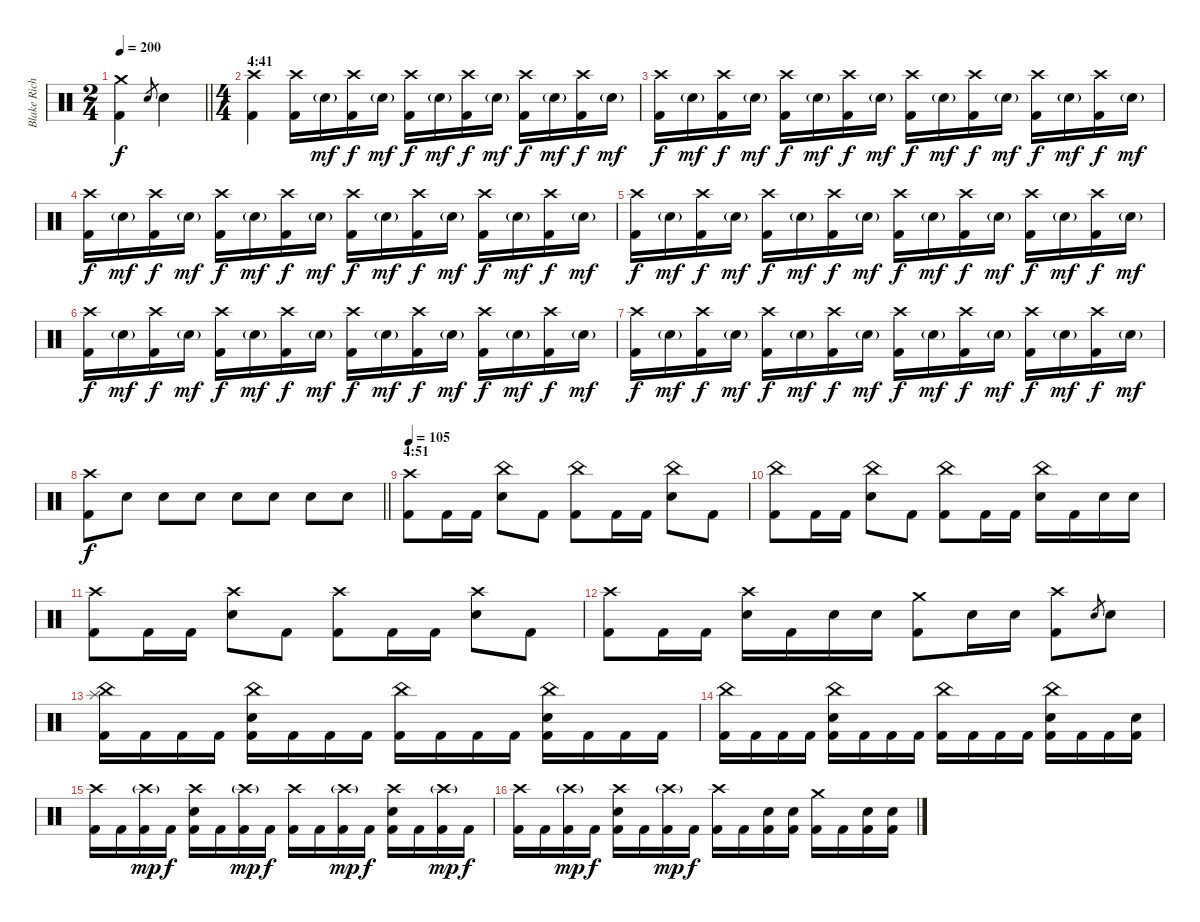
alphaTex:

\track ("Blake Richardson" "Blake Rich") {instrument percussion}
\staff {score}
\articulation defaults
\ts (2 4)
\tempo 200
\clef neutral
\barLineRight lightlight
\ks c
("Crash medium (hit)" "Kick (hit) 2").4{dy f} "Electric Snare (hit)".8{gr} "Electric Snare (hit)".4 |
\ts (4 4)
\section ("" "4:41")
("Crash high (hit)" "Kick (hit) 2").4 ("Crash high (hit)" "Kick (hit) 2").16 "Electric Snare (hit)"{g}.16{dy mf} ("Crash high (hit)" "Kick (hit) 2").16{dy f} "Electric Snare (hit)"{g}.16{dy mf} ("Crash high (hit)" "Kick (hit) 2").16{dy f} "Electric Snare (hit)"{g}.16{dy mf} ("Crash high (hit)" "Kick (hit) 2").16{dy f} "Electric Snare (hit)"{g}.16{dy mf} ("Crash high (hit)" "Kick (hit) 2").16{dy f} "Electric Snare (hit)"{g}.16{dy mf} ("Crash high (hit)" "Kick (hit) 2").16{dy f} "Electric Snare (hit)"{g}.16{dy mf} |
("Crash high (hit)" "Kick (hit) 2").16{dy f} "Electric Snare (hit)"{g}.16{dy mf} ("Crash high (hit)" "Kick (hit) 2").16{dy f} "Electric Snare (hit)"{g}.16{dy mf} ("Crash high (hit)" "Kick (hit) 2").16{dy f} "Electric Snare (hit)"{g}.16{dy mf} ("Crash high (hit)" "Kick (hit) 2").16{dy f} "Electric Snare (hit)"{g}.16{dy mf} ("Crash high (hit)" "Kick (hit) 2").16{dy f} "Electric Snare (hit)"{g}.16{dy mf} ("Crash high (hit)" "Kick (hit) 2").16{dy f} "Electric Snare (hit)"{g}.16{dy mf} ("Crash high (hit)" "Kick (hit) 2").16{dy f} "Electric Snare (hit)"{g}.16{dy mf} ("Crash high (hit)" "Kick (hit) 2").16{dy f} "Electric Snare (hit)"{g}.16{dy mf} |
("Crash high (hit)" "Kick (hit) 2").16{dy f} "Electric Snare (hit)"{g}.16{dy mf} ("Crash high (hit)" "Kick (hit) 2").16{dy f} "Electric Snare (hit)"{g}.16{dy mf} ("Crash high (hit)" "Kick (hit) 2").16{dy f} "Electric Snare (hit)"{g}.16{dy mf} ("Crash high (hit)" "Kick (hit) 2").16{dy f} "Electric Snare (hit)"{g}.16{dy mf} ("Crash high (hit)" "Kick (hit) 2").16{dy f} "Electric Snare (hit)"{g}.16{dy mf} ("Crash high (hit)" "Kick (hit) 2").16{dy f} "Electric Snare (hit)"{g}.16{dy mf} ("Crash high (hit)" "Kick (hit) 2").16{dy f} "Electric Snare (hit)"{g}.16{dy mf} ("Crash high (hit)" "Kick (hit) 2").16{dy f} "Electric Snare (hit)"{g}.16{dy mf} |
("Crash high (hit)" "Kick (hit) 2").16{dy f} "Electric Snare (hit)"{g}.16{dy mf} ("Crash high (hit)" "Kick (hit) 2").16{dy f} "Electric Snare (hit)"{g}.16{dy mf} ("Crash high (hit)" "Kick (hit) 2").16{dy f} "Electric Snare (hit)"{g}.16{dy mf} ("Crash high (hit)" "Kick (hit) 2").16{dy f} "Electric Snare (hit)"{g}.16{dy mf} ("Crash high (hit)" "Kick (hit) 2").16{dy f} "Electric Snare (hit)"{g}.16{dy mf} ("Crash high (hit)" "Kick (hit) 2").16{dy f} "Electric Snare (hit)"{g}.16{dy mf} ("Crash high (hit)" "Kick (hit) 2").16{dy f} "Electric Snare (hit)"{g}.16{dy mf} ("Crash high (hit)" "Kick (hit) 2").16{dy f} "Electric Snare (hit)"{g}.16{dy mf} |
("Crash high (hit)" "Kick (hit) 2").16{dy f} "Electric Snare (hit)"{g}.16{dy mf} ("Crash high (hit)" "Kick (hit) 2").16{dy f} "Electric Snare (hit)"{g}.16{dy mf} ("Crash high (hit)" "Kick (hit) 2").16{dy f} "Electric Snare (hit)"{g}.16{dy mf} ("Crash high (hit)" "Kick (hit) 2").16{dy f} "Electric Snare (hit)"{g}.16{dy mf} ("Crash high (hit)" "Kick (hit) 2").16{dy f} "Electric Snare (hit)"{g}.16{dy mf} ("Crash high (hit)" "Kick (hit) 2").16{dy f} "Electric Snare (hit)"{g}.16{dy mf} ("Crash high (hit)" "Kick (hit) 2").16{dy f} "Electric Snare (hit)"{g}.16{dy mf} ("Crash high (hit)" "Kick (hit) 2").16{dy f} "Electric Snare (hit)"{g}.16{dy mf} |
("Crash high (hit)" "Kick (hit) 2").16{dy f} "Electric Snare (hit)"{g}.16{dy mf} ("Crash high (hit)" "Kick (hit) 2").16{dy f} "Electric Snare (hit)"{g}.16{dy mf} ("Crash high (hit)" "Kick (hit) 2").16{dy f} "Electric Snare (hit)"{g}.16{dy mf} ("Crash high (hit)" "Kick (hit) 2").16{dy f} "Electric Snare (hit)"{g}.16{dy mf} ("Crash high (hit)" "Kick (hit) 2").16{dy f} "Electric Snare (hit)"{g}.16{dy mf} ("Crash high (hit)" "Kick (hit) 2").16{dy f} "Electric Snare (hit)"{g}.16{dy mf} ("Crash high (hit)" "Kick (hit) 2").16{dy f} "Electric Snare (hit)"{g}.16{dy mf} ("Crash high (hit)" "Kick (hit) 2").16{dy f} "Electric Snare (hit)"{g}.16{dy mf} |
\barLineRight lightlight
("Crash high (hit)" "Kick (hit) 2").8{dy f} "Electric Snare (hit)".8 "Electric Snare (hit)".8 "Electric Snare (hit)".8 "Electric Snare (hit)".8 "Electric Snare (hit)".8 "Electric Snare (hit)".8 "Electric Snare (hit)".8 |
\section ("" "4:51")
\tempo 105
("Crash high (hit)" "Kick (hit) 2").8 "Kick (hit) 2".16 "Kick (hit) 2".16 ("China (hit)" "Electric Snare (hit)").8 "Kick (hit) 2".8 ("China (hit)" "Kick (hit) 2").8 "Kick (hit) 2".16 "Kick (hit) 2".16 ("China (hit)" "Electric Snare (hit)").8 "Kick (hit) 2".8 |
("China (hit)" "Kick (hit) 2").8 "Kick (hit) 2".16 "Kick (hit) 2".16 ("China (hit)" "Electric Snare (hit)").8 "Kick (hit) 2".8 ("China (hit)" "Kick (hit) 2").8 "Kick (hit) 2".16 "Kick (hit) 2".16 ("China (hit)" "Electric Snare (hit)").16 "Kick (hit) 2".16 "Electric Snare (hit)".16 "Electric Snare (hit)".16 |
("Crash high (hit)" "Kick (hit) 2").8 "Kick (hit) 2".16 "Kick (hit) 2".16 ("Crash high (hit)" "Electric Snare (hit)").8 "Kick (hit) 2".8 ("Crash high (hit)" "Kick (hit) 2").8 "Kick (hit) 2".16 "Kick (hit) 2".16 ("Crash high (hit)" "Electric Snare (hit)").8 "Kick (hit) 2".8 |
("Crash high (hit)" "Kick (hit) 2").8 "Kick (hit) 2".16 "Kick (hit) 2".16 ("Crash high (hit)" "Electric Snare (hit)").16 "Kick (hit) 2".16 "Electric Snare (hit)".16 "Electric Snare (hit)".16 ("Crash medium (hit)" "Kick (hit) 2").8 "Electric Snare (hit)".16 "Electric Snare (hit)".16 ("Crash high (hit)" "Kick (hit) 2").8 "Electric Snare (hit)".8{gr} "Electric Snare (hit)".8 |
("China (hit)" "Splash (hit)" "Kick (hit) 2").16 "Kick (hit) 2".16 "Kick (hit) 2".16 "Kick (hit) 2".16 ("China (hit)" "Electric Snare (hit)" "Kick (hit) 2").16 "Kick (hit) 2".16 "Kick (hit) 2".16 "Kick (hit) 2".16 ("China (hit)" "Kick (hit) 2").16 "Kick (hit) 2".16 "Kick (hit) 2".16 "Kick (hit) 2".16 ("China (hit)" "Electric Snare (hit)" "Kick (hit) 2").16 "Kick (hit) 2".16 "Kick (hit) 2".16 "Kick (hit) 2".16 |
("China (hit)" "Kick (hit) 2").16 "Kick (hit) 2".16 "Kick (hit) 2".16 "Kick (hit) 2".16 ("China (hit)" "Electric Snare (hit)" "Kick (hit) 2").16 "Kick (hit) 2".16 "Kick (hit) 2".16 "Kick (hit) 2".16 ("China (hit)" "Kick (hit) 2").16 "Kick (hit) 2".16 "Kick (hit) 2".16 "Kick (hit) 2".16 ("China (hit)" "Electric Snare (hit)" "Kick (hit) 2").16 "Kick (hit) 2".16 "Kick (hit) 2".16 ("Electric Snare (hit)" "Kick (hit) 2").16 |
("Crash high (hit)" "Kick (hit) 2").16 "Kick (hit) 2".16 ("Crash high (hit)"{g} "Kick (hit) 2").16{dy mp} "Kick (hit) 2".16{dy f} ("Crash high (hit)" "Electric Snare (hit)" "Kick (hit) 2").16 "Kick (hit) 2".16 ("Crash high (hit)"{g} "Kick (hit) 2").16{dy mp} "Kick (hit) 2".16{dy f} ("Crash high (hit)" "Kick (hit) 2").16 "Kick (hit) 2".16 ("Crash high (hit)"{g} "Kick (hit) 2").16{dy mp} "Kick (hit) 2".16{dy f} ("Crash high (hit)" "Electric Snare (hit)" "Kick (hit) 2").16 "Kick (hit) 2".16 ("Crash high (hit)"{g} "Kick (hit) 2").16{dy mp} "Kick (hit) 2".16{dy f} |
("Crash high (hit)" "Kick (hit) 2").16 "Kick (hit) 2".16 ("Crash high (hit)"{g} "Kick (hit) 2").16{dy mp} "Kick (hit) 2".16{dy f} ("Crash high (hit)" "Electric Snare (hit)" "Kick (hit) 2").16 "Kick (hit) 2".16 ("Crash high (hit)"{g} "Kick (hit) 2").16{dy mp} "Kick (hit) 2".16{dy f} ("Crash high (hit)" "Kick (hit) 2").16 "Kick (hit) 2".16 ("Electric Snare (hit)" "Kick (hit) 2").16 ("Electric Snare (hit)" "Kick (hit) 2").16 ("Crash medium (hit)" "Kick (hit) 2").16 "Kick (hit) 2".16 ("Electric Snare (hit)" "Kick (hit) 2").16 ("Electric Snare (hit)" "Kick (hit) 2").16
